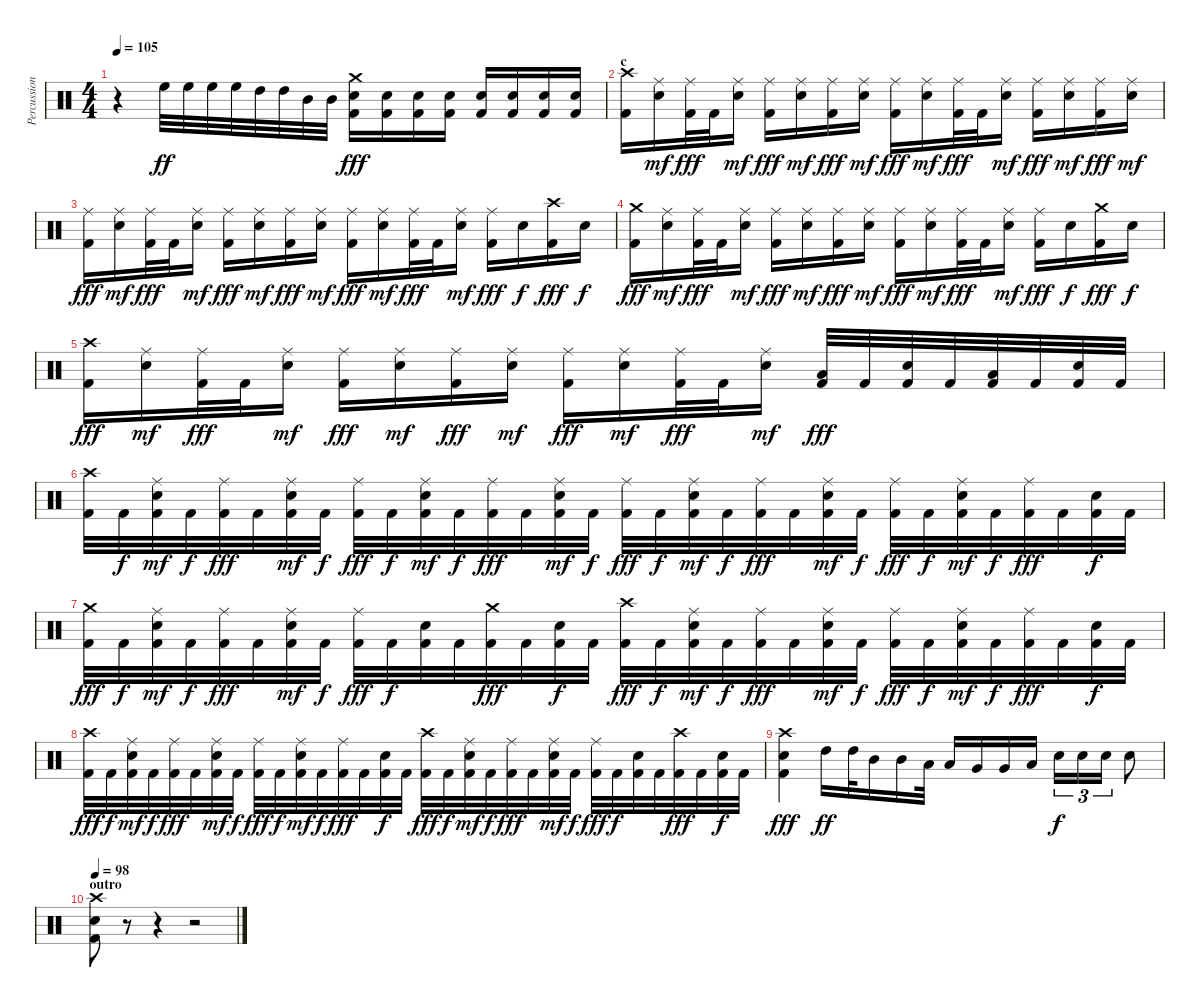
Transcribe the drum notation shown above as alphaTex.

\track ("Percussion" "Percussion") {instrument percussion}
\staff {score}
\articulation defaults
\ts (4 4)
\tempo 105
\clef neutral
\ks c
r.4{dy fff} "High Floor Tom (hit)".32{dy ff} "High Floor Tom (hit)".32 "High Floor Tom (hit)".32 "High Floor Tom (hit)".32 "High Tom (hit)".32 "High Tom (hit)".32 "Mid Tom (hit)".32 "Mid Tom (hit)".32 ("Crash medium (hit)" "Snare (hit) 2" "Kick (hit) 2").16{dy fff} ("Snare (hit) 2" "Kick (hit) 2").16 ("Snare (hit) 2" "Kick (hit) 2").16 ("Snare (hit) 2" "Kick (hit) 2").16 ("Snare (hit) 2" "Kick (hit) 2").16 ("Snare (hit) 2" "Kick (hit) 2").16 ("Snare (hit) 2" "Kick (hit) 2").16 ("Snare (hit) 2" "Kick (hit) 2").16 |
\section ("" "c")
("Crash high (hit)" "Kick (hit) 2").16 ("Ride (middle)" "Snare (hit) 2").16{dy mf} ("Ride (middle)" "Kick (hit) 2").32{dy fff} "Kick (hit) 2".32 ("Ride (middle)" "Snare (hit) 2").16{dy mf} ("Ride (middle)" "Kick (hit) 2").16{dy fff} ("Ride (middle)" "Snare (hit) 2").16{dy mf} ("Ride (middle)" "Kick (hit) 2").16{dy fff} ("Ride (middle)" "Snare (hit) 2").16{dy mf} ("Ride (middle)" "Kick (hit) 2").16{dy fff} ("Ride (middle)" "Snare (hit) 2").16{dy mf} ("Ride (middle)" "Kick (hit) 2").32{dy fff} "Kick (hit) 2".32 ("Ride (middle)" "Snare (hit) 2").16{dy mf} ("Ride (middle)" "Kick (hit) 2").16{dy fff} ("Ride (middle)" "Snare (hit) 2").16{dy mf} ("Ride (middle)" "Kick (hit) 2").16{dy fff} ("Ride (middle)" "Snare (hit) 2").16{dy mf} |
("Ride (middle)" "Kick (hit) 2").16{dy fff} ("Ride (middle)" "Snare (hit) 2").16{dy mf} ("Ride (middle)" "Kick (hit) 2").32{dy fff} "Kick (hit) 2".32 ("Ride (middle)" "Snare (hit) 2").16{dy mf} ("Ride (middle)" "Kick (hit) 2").16{dy fff} ("Ride (middle)" "Snare (hit) 2").16{dy mf} ("Ride (middle)" "Kick (hit) 2").16{dy fff} ("Ride (middle)" "Snare (hit) 2").16{dy mf} ("Ride (middle)" "Kick (hit) 2").16{dy fff} ("Ride (middle)" "Snare (hit) 2").16{dy mf} ("Ride (middle)" "Kick (hit) 2").32{dy fff} "Kick (hit) 2".32 ("Ride (middle)" "Snare (hit) 2").16{dy mf} ("Ride (middle)" "Kick (hit) 2").16{dy fff} "Snare (hit) 2".16{dy f} ("Crash high (hit)" "Kick (hit) 2").16{dy fff} "Snare (hit) 2".16{dy f} |
("Crash medium (hit)" "Kick (hit) 2").16{dy fff} ("Ride (middle)" "Snare (hit) 2").16{dy mf} ("Ride (middle)" "Kick (hit) 2").32{dy fff} "Kick (hit) 2".32 ("Ride (middle)" "Snare (hit) 2").16{dy mf} ("Ride (middle)" "Kick (hit) 2").16{dy fff} ("Ride (middle)" "Snare (hit) 2").16{dy mf} ("Ride (middle)" "Kick (hit) 2").16{dy fff} ("Ride (middle)" "Snare (hit) 2").16{dy mf} ("Ride (middle)" "Kick (hit) 2").16{dy fff} ("Ride (middle)" "Snare (hit) 2").16{dy mf} ("Ride (middle)" "Kick (hit) 2").32{dy fff} "Kick (hit) 2".32 ("Ride (middle)" "Snare (hit) 2").16{dy mf} ("Ride (middle)" "Kick (hit) 2").16{dy fff} "Snare (hit) 2".16{dy f} ("Crash medium (hit)" "Kick (hit) 2").16{dy fff} "Snare (hit) 2".16{dy f} |
("Crash high (hit)" "Kick (hit) 2").16{dy fff} ("Ride (middle)" "Snare (hit) 2").16{dy mf} ("Ride (middle)" "Kick (hit) 2").32{dy fff} "Kick (hit) 2".32 ("Ride (middle)" "Snare (hit) 2").16{dy mf} ("Ride (middle)" "Kick (hit) 2").16{dy fff} ("Ride (middle)" "Snare (hit) 2").16{dy mf} ("Ride (middle)" "Kick (hit) 2").16{dy fff} ("Ride (middle)" "Snare (hit) 2").16{dy mf} ("Ride (middle)" "Kick (hit) 2").16{dy fff} ("Ride (middle)" "Snare (hit) 2").16{dy mf} ("Ride (middle)" "Kick (hit) 2").32{dy fff} "Kick (hit) 2".32 ("Ride (middle)" "Snare (hit) 2").16{dy mf} ("Low Tom (hit)" "Kick (hit) 2").32{dy fff} "Kick (hit) 2".32 ("Snare (hit) 2" "Kick (hit) 2").32 "Kick (hit) 2".32 ("Low Tom (hit)" "Kick (hit) 2").32 "Kick (hit) 2".32 ("Snare (hit) 2" "Kick (hit) 2").32 "Kick (hit) 2".32 |
("Crash high (hit)" "Kick (hit) 2").32 "Kick (hit) 2".32{dy f} ("Ride (middle)" "Snare (hit) 2" "Kick (hit) 2").32{dy mf} "Kick (hit) 2".32{dy f} ("Ride (middle)" "Kick (hit) 2").32{dy fff} "Kick (hit) 2".32 ("Ride (middle)" "Snare (hit) 2" "Kick (hit) 2").32{dy mf} "Kick (hit) 2".32{dy f} ("Ride (middle)" "Kick (hit) 2").32{dy fff} "Kick (hit) 2".32{dy f} ("Ride (middle)" "Snare (hit) 2" "Kick (hit) 2").32{dy mf} "Kick (hit) 2".32{dy f} ("Ride (middle)" "Kick (hit) 2").32{dy fff} "Kick (hit) 2".32 ("Ride (middle)" "Snare (hit) 2" "Kick (hit) 2").32{dy mf} "Kick (hit) 2".32{dy f} ("Ride (middle)" "Kick (hit) 2").32{dy fff} "Kick (hit) 2".32{dy f} ("Ride (middle)" "Snare (hit) 2" "Kick (hit) 2").32{dy mf} "Kick (hit) 2".32{dy f} ("Ride (middle)" "Kick (hit) 2").32{dy fff} "Kick (hit) 2".32 ("Ride (middle)" "Snare (hit) 2" "Kick (hit) 2").32{dy mf} "Kick (hit) 2".32{dy f} ("Ride (middle)" "Kick (hit) 2").32{dy fff} "Kick (hit) 2".32{dy f} ("Ride (middle)" "Snare (hit) 2" "Kick (hit) 2").32{dy mf} "Kick (hit) 2".32{dy f} ("Ride (middle)" "Kick (hit) 2").32{dy fff} "Kick (hit) 2".32 ("Snare (hit) 2" "Kick (hit) 2").32{dy f} "Kick (hit) 2".32 |
("Crash medium (hit)" "Kick (hit) 2").32{dy fff} "Kick (hit) 2".32{dy f} ("Ride (middle)" "Snare (hit) 2" "Kick (hit) 2").32{dy mf} "Kick (hit) 2".32{dy f} ("Ride (middle)" "Kick (hit) 2").32{dy fff} "Kick (hit) 2".32 ("Ride (middle)" "Snare (hit) 2" "Kick (hit) 2").32{dy mf} "Kick (hit) 2".32{dy f} ("Ride (middle)" "Kick (hit) 2").32{dy fff} "Kick (hit) 2".32{dy f} ("Snare (hit) 2" "Kick (hit) 2").32 "Kick (hit) 2".32 ("Crash medium (hit)" "Kick (hit) 2").32{dy fff} "Kick (hit) 2".32 ("Snare (hit) 2" "Kick (hit) 2").32{dy f} "Kick (hit) 2".32 ("Crash high (hit)" "Kick (hit) 2").32{dy fff} "Kick (hit) 2".32{dy f} ("Ride (middle)" "Snare (hit) 2" "Kick (hit) 2").32{dy mf} "Kick (hit) 2".32{dy f} ("Ride (middle)" "Kick (hit) 2").32{dy fff} "Kick (hit) 2".32 ("Ride (middle)" "Snare (hit) 2" "Kick (hit) 2").32{dy mf} "Kick (hit) 2".32{dy f} ("Ride (middle)" "Kick (hit) 2").32{dy fff} "Kick (hit) 2".32{dy f} ("Ride (middle)" "Snare (hit) 2" "Kick (hit) 2").32{dy mf} "Kick (hit) 2".32{dy f} ("Ride (middle)" "Kick (hit) 2").32{dy fff} "Kick (hit) 2".32 ("Snare (hit) 2" "Kick (hit) 2").32{dy f} "Kick (hit) 2".32 |
("Crash high (hit)" "Kick (hit) 2").32{dy fff} "Kick (hit) 2".32{dy f} ("Ride (middle)" "Snare (hit) 2" "Kick (hit) 2").32{dy mf} "Kick (hit) 2".32{dy f} ("Ride (middle)" "Kick (hit) 2").32{dy fff} "Kick (hit) 2".32 ("Ride (middle)" "Snare (hit) 2" "Kick (hit) 2").32{dy mf} "Kick (hit) 2".32{dy f} ("Ride (middle)" "Kick (hit) 2").32{dy fff} "Kick (hit) 2".32{dy f} ("Ride (middle)" "Snare (hit) 2" "Kick (hit) 2").32{dy mf} "Kick (hit) 2".32{dy f} ("Ride (middle)" "Kick (hit) 2").32{dy fff} "Kick (hit) 2".32 ("Snare (hit) 2" "Kick (hit) 2").32{dy f} "Kick (hit) 2".32 ("Crash high (hit)" "Kick (hit) 2").32{dy fff} "Kick (hit) 2".32{dy f} ("Ride (middle)" "Snare (hit) 2" "Kick (hit) 2").32{dy mf} "Kick (hit) 2".32{dy f} ("Ride (middle)" "Kick (hit) 2").32{dy fff} "Kick (hit) 2".32 ("Ride (middle)" "Snare (hit) 2" "Kick (hit) 2").32{dy mf} "Kick (hit) 2".32{dy f} ("Ride (middle)" "Kick (hit) 2").32{dy fff} "Kick (hit) 2".32{dy f} ("Snare (hit) 2" "Kick (hit) 2").32 "Kick (hit) 2".32 ("Crash high (hit)" "Kick (hit) 2").32{dy fff} "Kick (hit) 2".32 ("Snare (hit) 2" "Kick (hit) 2").32{dy f} "Kick (hit) 2".32 |
("Crash high (hit)" "Snare (hit) 2" "Kick (hit) 2").4{dy fff} "High Tom (hit)".16{dy ff} "High Tom (hit)".32 "Mid Tom (hit)".16 "Mid Tom (hit)".16 "Low Tom (hit)".32 "Low Tom (hit)".16 "Very Low Tom (hit)".16 "Very Low Tom (hit)".16 "Low Floor Tom (hit)".16 "Snare (hit) 2".16{tu (3 2) dy f} "Snare (hit) 2".16{tu (3 2)} "Snare (hit) 2".16{tu (3 2)} "Snare (hit) 2".8 |
\section ("" "outro")
\tempo 98
("Crash high (hit)" "Snare (hit) 2" "Kick (hit) 2").8 r.8 r.4 r.2
